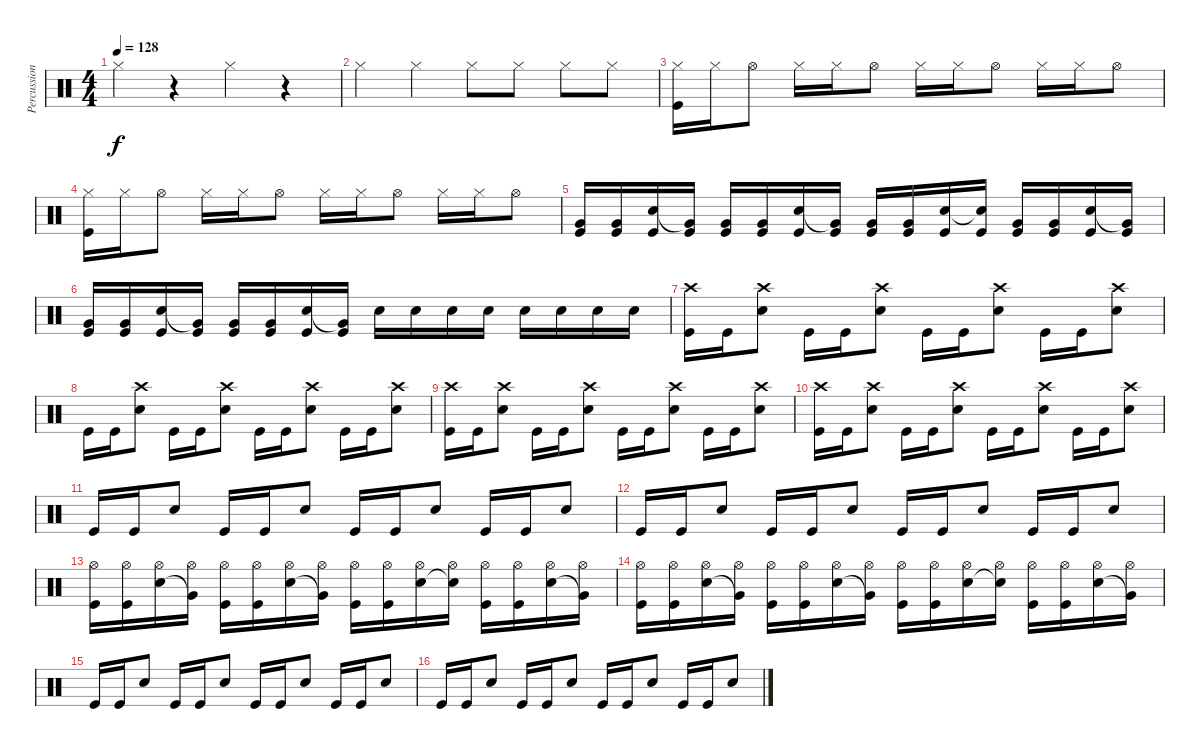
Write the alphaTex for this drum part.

\track ("Percussion" "Percussion") {instrument percussion}
\staff {score}
\articulation defaults
\ts (4 4)
\tempo 128
\clef neutral
\ks c "Hi-Hat (closed)".4{dy f}
r.4 "Hi-Hat (closed)".4 r.4 |
"Hi-Hat (closed)".4 "Hi-Hat (closed)".4 "Hi-Hat (closed)".8 "Hi-Hat (closed)".8 "Hi-Hat (closed)".8 "Hi-Hat (closed)".8 |
("Hi-Hat (closed)" "Kick (hit)").16 "Hi-Hat (closed)".16 "Hi-Hat (open)".8 "Hi-Hat (closed)".16 "Hi-Hat (closed)".16 "Hi-Hat (open)".8 "Hi-Hat (closed)".16 "Hi-Hat (closed)".16 "Hi-Hat (open)".8 "Hi-Hat (closed)".16 "Hi-Hat (closed)".16 "Hi-Hat (open)".8 |
("Hi-Hat (closed)" "Kick (hit)").16 "Hi-Hat (closed)".16 "Hi-Hat (open)".8 "Hi-Hat (closed)".16 "Hi-Hat (closed)".16 "Hi-Hat (open)".8 "Hi-Hat (closed)".16 "Hi-Hat (closed)".16 "Hi-Hat (open)".8 "Hi-Hat (closed)".16 "Hi-Hat (closed)".16 "Hi-Hat (open)".8 |
("Very Low Tom (hit)" "Kick (hit)").16 ("Very Low Tom (hit)" "Kick (hit)").16 ("Electric Snare (hit)" "Kick (hit)").16 ("Very Low Tom (hit)"{t} "Kick (hit)").16 ("Very Low Tom (hit)" "Kick (hit)").16 ("Very Low Tom (hit)" "Kick (hit)").16 ("Electric Snare (hit)" "Kick (hit)").16 ("Very Low Tom (hit)"{t} "Kick (hit)").16 ("Very Low Tom (hit)" "Kick (hit)").16 ("Very Low Tom (hit)" "Kick (hit)").16 ("Electric Snare (hit)" "Kick (hit)").16 ("Electric Snare (hit)"{t} "Kick (hit)").16 ("Very Low Tom (hit)" "Kick (hit)").16 ("Very Low Tom (hit)" "Kick (hit)").16 ("Electric Snare (hit)" "Kick (hit)").16 ("Very Low Tom (hit)"{t} "Kick (hit)").16 |
("Very Low Tom (hit)" "Kick (hit)").16 ("Very Low Tom (hit)" "Kick (hit)").16 ("Electric Snare (hit)" "Kick (hit)").16 ("Very Low Tom (hit)"{t} "Kick (hit)").16 ("Very Low Tom (hit)" "Kick (hit)").16 ("Very Low Tom (hit)" "Kick (hit)").16 ("Electric Snare (hit)" "Kick (hit)").16 ("Very Low Tom (hit)"{t} "Kick (hit)").16 "Electric Snare (hit)".16 "Electric Snare (hit)".16 "Electric Snare (hit)".16 "Electric Snare (hit)".16 "Electric Snare (hit)".16 "Electric Snare (hit)".16 "Electric Snare (hit)".16 "Electric Snare (hit)".16 |
("Crash high (hit)" "Kick (hit)").16 "Kick (hit)".16 ("Crash high (hit)" "Electric Snare (hit)").8 "Kick (hit)".16 "Kick (hit)".16 ("Crash high (hit)" "Electric Snare (hit)").8 "Kick (hit)".16 "Kick (hit)".16 ("Crash high (hit)" "Electric Snare (hit)").8 "Kick (hit)".16 "Kick (hit)".16 ("Crash high (hit)" "Electric Snare (hit)").8 |
"Kick (hit)".16 "Kick (hit)".16 ("Crash high (hit)" "Electric Snare (hit)").8 "Kick (hit)".16 "Kick (hit)".16 ("Crash high (hit)" "Electric Snare (hit)").8 "Kick (hit)".16 "Kick (hit)".16 ("Crash high (hit)" "Electric Snare (hit)").8 "Kick (hit)".16 "Kick (hit)".16 ("Crash high (hit)" "Electric Snare (hit)").8 |
("Crash high (hit)" "Kick (hit)").16 "Kick (hit)".16 ("Crash high (hit)" "Electric Snare (hit)").8 "Kick (hit)".16 "Kick (hit)".16 ("Crash high (hit)" "Electric Snare (hit)").8 "Kick (hit)".16 "Kick (hit)".16 ("Crash high (hit)" "Electric Snare (hit)").8 "Kick (hit)".16 "Kick (hit)".16 ("Crash high (hit)" "Electric Snare (hit)").8 |
("Crash high (hit)" "Kick (hit)").16 "Kick (hit)".16 ("Crash high (hit)" "Electric Snare (hit)").8 "Kick (hit)".16 "Kick (hit)".16 ("Crash high (hit)" "Electric Snare (hit)").8 "Kick (hit)".16 "Kick (hit)".16 ("Crash high (hit)" "Electric Snare (hit)").8 "Kick (hit)".16 "Kick (hit)".16 ("Crash high (hit)" "Electric Snare (hit)").8 |
"Kick (hit)".16 "Kick (hit)".16 "Electric Snare (hit)".8 "Kick (hit)".16 "Kick (hit)".16 "Electric Snare (hit)".8 "Kick (hit)".16 "Kick (hit)".16 "Electric Snare (hit)".8 "Kick (hit)".16 "Kick (hit)".16 "Electric Snare (hit)".8 |
"Kick (hit)".16 "Kick (hit)".16 "Electric Snare (hit)".8 "Kick (hit)".16 "Kick (hit)".16 "Electric Snare (hit)".8 "Kick (hit)".16 "Kick (hit)".16 "Electric Snare (hit)".8 "Kick (hit)".16 "Kick (hit)".16 "Electric Snare (hit)".8 |
("Hi-Hat (open)" "Kick (hit)").16 ("Hi-Hat (open)" "Kick (hit)").16 ("Hi-Hat (open)" "Electric Snare (hit)").16 ("Hi-Hat (open)" "Very Low Tom (hit)"{t}).16 ("Hi-Hat (open)" "Kick (hit)").16 ("Hi-Hat (open)" "Kick (hit)").16 ("Hi-Hat (open)" "Electric Snare (hit)").16 ("Hi-Hat (open)" "Very Low Tom (hit)"{t}).16 ("Hi-Hat (open)" "Kick (hit)").16 ("Hi-Hat (open)" "Kick (hit)").16 ("Hi-Hat (open)" "Electric Snare (hit)").16 ("Hi-Hat (open)" "Electric Snare (hit)"{t}).16 ("Hi-Hat (open)" "Kick (hit)").16 ("Hi-Hat (open)" "Kick (hit)").16 ("Hi-Hat (open)" "Electric Snare (hit)").16 ("Hi-Hat (open)" "Very Low Tom (hit)"{t}).16 |
("Hi-Hat (open)" "Kick (hit)").16 ("Hi-Hat (open)" "Kick (hit)").16 ("Hi-Hat (open)" "Electric Snare (hit)").16 ("Hi-Hat (open)" "Very Low Tom (hit)"{t}).16 ("Hi-Hat (open)" "Kick (hit)").16 ("Hi-Hat (open)" "Kick (hit)").16 ("Hi-Hat (open)" "Electric Snare (hit)").16 ("Hi-Hat (open)" "Very Low Tom (hit)"{t}).16 ("Hi-Hat (open)" "Kick (hit)").16 ("Hi-Hat (open)" "Kick (hit)").16 ("Hi-Hat (open)" "Electric Snare (hit)").16 ("Hi-Hat (open)" "Electric Snare (hit)"{t}).16 ("Hi-Hat (open)" "Kick (hit)").16 ("Hi-Hat (open)" "Kick (hit)").16 ("Hi-Hat (open)" "Electric Snare (hit)").16 ("Hi-Hat (open)" "Very Low Tom (hit)"{t}).16 |
"Kick (hit)".16 "Kick (hit)".16 "Electric Snare (hit)".8 "Kick (hit)".16 "Kick (hit)".16 "Electric Snare (hit)".8 "Kick (hit)".16 "Kick (hit)".16 "Electric Snare (hit)".8 "Kick (hit)".16 "Kick (hit)".16 "Electric Snare (hit)".8 |
"Kick (hit)".16 "Kick (hit)".16 "Electric Snare (hit)".8 "Kick (hit)".16 "Kick (hit)".16 "Electric Snare (hit)".8 "Kick (hit)".16 "Kick (hit)".16 "Electric Snare (hit)".8 "Kick (hit)".16 "Kick (hit)".16 "Electric Snare (hit)".8
